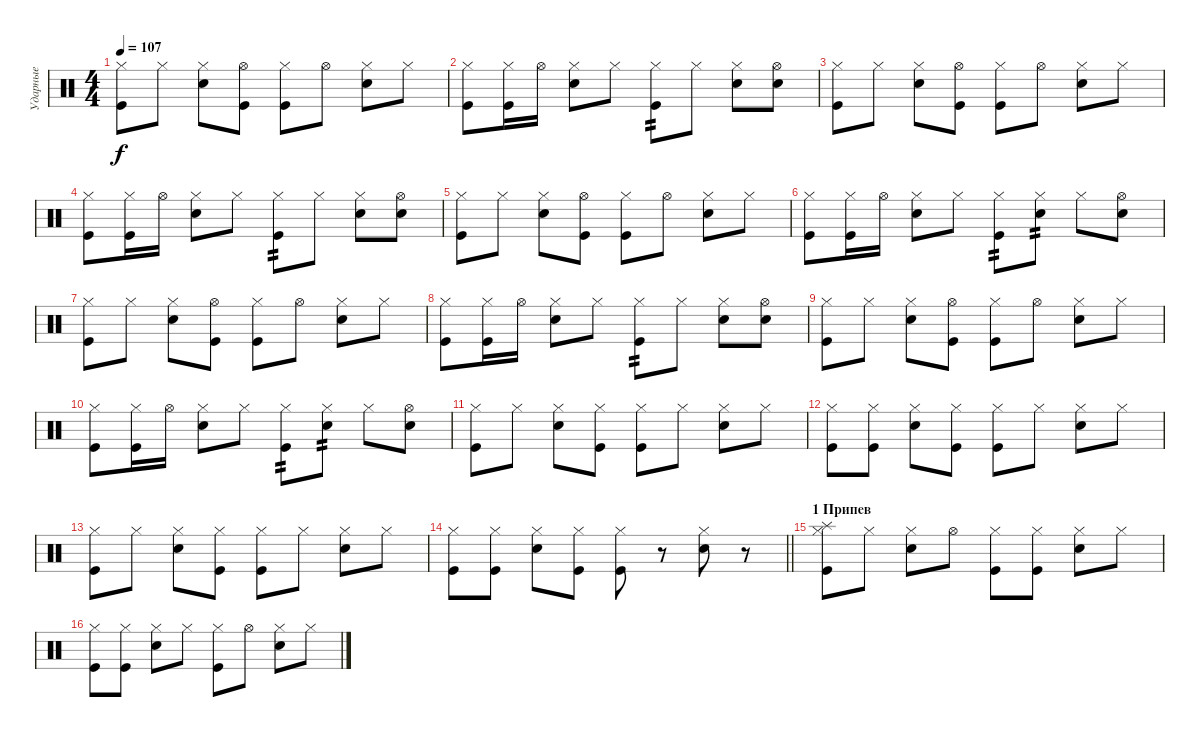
\track ("Ударные" "Ударные") {instrument percussion}
\staff {score}
\articulation defaults
\ts (4 4)
\tempo 107
\clef neutral
\ks c
("Hi-Hat (closed)" "Kick (hit)").8{dy f} "Hi-Hat (closed)".8 ("Hi-Hat (closed)" "Electric Snare (hit)").8 ("Hi-Hat (open)" "Kick (hit)").8 ("Hi-Hat (closed)" "Kick (hit)").8 "Hi-Hat (open)".8 ("Hi-Hat (closed)" "Electric Snare (hit)").8 "Hi-Hat (closed)".8 |
("Hi-Hat (closed)" "Kick (hit)").8 ("Hi-Hat (closed)" "Kick (hit)").16 "Hi-Hat (open)".16 ("Hi-Hat (closed)" "Electric Snare (hit)").8 "Hi-Hat (closed)".8 ("Hi-Hat (closed)" "Kick (hit)").8{tp 2} "Hi-Hat (closed)".8 ("Hi-Hat (closed)" "Electric Snare (hit)").8 ("Hi-Hat (open)" "Electric Snare (hit)").8 |
("Hi-Hat (closed)" "Kick (hit)").8 "Hi-Hat (closed)".8 ("Hi-Hat (closed)" "Electric Snare (hit)").8 ("Hi-Hat (open)" "Kick (hit)").8 ("Hi-Hat (closed)" "Kick (hit)").8 "Hi-Hat (open)".8 ("Hi-Hat (closed)" "Electric Snare (hit)").8 "Hi-Hat (closed)".8 |
("Hi-Hat (closed)" "Kick (hit)").8 ("Hi-Hat (closed)" "Kick (hit)").16 "Hi-Hat (open)".16 ("Hi-Hat (closed)" "Electric Snare (hit)").8 "Hi-Hat (closed)".8 ("Hi-Hat (closed)" "Kick (hit)").8{tp 2} "Hi-Hat (closed)".8 ("Hi-Hat (closed)" "Electric Snare (hit)").8 ("Hi-Hat (open)" "Electric Snare (hit)").8 |
("Hi-Hat (closed)" "Kick (hit)").8 "Hi-Hat (closed)".8 ("Hi-Hat (closed)" "Electric Snare (hit)").8 ("Hi-Hat (open)" "Kick (hit)").8 ("Hi-Hat (closed)" "Kick (hit)").8 "Hi-Hat (open)".8 ("Hi-Hat (closed)" "Electric Snare (hit)").8 "Hi-Hat (closed)".8 |
("Hi-Hat (closed)" "Kick (hit)").8 ("Hi-Hat (closed)" "Kick (hit)").16 "Hi-Hat (open)".16 ("Hi-Hat (closed)" "Electric Snare (hit)").8 "Hi-Hat (closed)".8 ("Hi-Hat (closed)" "Kick (hit)").8{tp 2} ("Hi-Hat (closed)" "Electric Snare (hit)").8{tp 2} "Hi-Hat (closed)".8 ("Hi-Hat (open)" "Electric Snare (hit)").8 |
("Hi-Hat (closed)" "Kick (hit)").8 "Hi-Hat (closed)".8 ("Hi-Hat (closed)" "Electric Snare (hit)").8 ("Hi-Hat (open)" "Kick (hit)").8 ("Hi-Hat (closed)" "Kick (hit)").8 "Hi-Hat (open)".8 ("Hi-Hat (closed)" "Electric Snare (hit)").8 "Hi-Hat (closed)".8 |
("Hi-Hat (closed)" "Kick (hit)").8 ("Hi-Hat (closed)" "Kick (hit)").16 "Hi-Hat (open)".16 ("Hi-Hat (closed)" "Electric Snare (hit)").8 "Hi-Hat (closed)".8 ("Hi-Hat (closed)" "Kick (hit)").8{tp 2} "Hi-Hat (closed)".8 ("Hi-Hat (closed)" "Electric Snare (hit)").8 ("Hi-Hat (open)" "Electric Snare (hit)").8 |
("Hi-Hat (closed)" "Kick (hit)").8 "Hi-Hat (closed)".8 ("Hi-Hat (closed)" "Electric Snare (hit)").8 ("Hi-Hat (open)" "Kick (hit)").8 ("Hi-Hat (closed)" "Kick (hit)").8 "Hi-Hat (open)".8 ("Hi-Hat (closed)" "Electric Snare (hit)").8 "Hi-Hat (closed)".8 |
("Hi-Hat (closed)" "Kick (hit)").8 ("Hi-Hat (closed)" "Kick (hit)").16 "Hi-Hat (open)".16 ("Hi-Hat (closed)" "Electric Snare (hit)").8 "Hi-Hat (closed)".8 ("Hi-Hat (closed)" "Kick (hit)").8{tp 2} ("Hi-Hat (closed)" "Electric Snare (hit)").8{tp 2} "Hi-Hat (closed)".8 ("Hi-Hat (open)" "Electric Snare (hit)").8 |
("Hi-Hat (closed)" "Kick (hit)").8 "Hi-Hat (closed)".8 ("Hi-Hat (closed)" "Electric Snare (hit)").8 ("Hi-Hat (closed)" "Kick (hit)").8 ("Hi-Hat (closed)" "Kick (hit)").8 "Hi-Hat (closed)".8 ("Hi-Hat (closed)" "Electric Snare (hit)").8 "Hi-Hat (closed)".8 |
("Hi-Hat (closed)" "Kick (hit)").8 ("Hi-Hat (closed)" "Kick (hit)").8 ("Hi-Hat (closed)" "Electric Snare (hit)").8 ("Hi-Hat (closed)" "Kick (hit)").8 ("Hi-Hat (closed)" "Kick (hit)").8 "Hi-Hat (closed)".8 ("Hi-Hat (closed)" "Electric Snare (hit)").8 "Hi-Hat (closed)".8 |
("Hi-Hat (closed)" "Kick (hit)").8 "Hi-Hat (closed)".8 ("Hi-Hat (closed)" "Electric Snare (hit)").8 ("Hi-Hat (closed)" "Kick (hit)").8 ("Hi-Hat (closed)" "Kick (hit)").8 "Hi-Hat (closed)".8 ("Hi-Hat (closed)" "Electric Snare (hit)").8 "Hi-Hat (closed)".8 |
\barLineRight lightlight
("Hi-Hat (closed)" "Kick (hit)").8 ("Hi-Hat (closed)" "Kick (hit)").8 ("Hi-Hat (closed)" "Electric Snare (hit)").8 ("Hi-Hat (closed)" "Kick (hit)").8 ("Hi-Hat (closed)" "Kick (hit)").8 r.8 ("Hi-Hat (closed)" "Electric Snare (hit)").8 r.8 |
\section ("" "1 Припев")
("Hi-Hat (closed)" "Splash (hit)" "Kick (hit)").8 "Hi-Hat (closed)".8 ("Hi-Hat (closed)" "Electric Snare (hit)").8 "Hi-Hat (open)".8 ("Hi-Hat (closed)" "Kick (hit)").8 ("Hi-Hat (closed)" "Kick (hit)").8 ("Hi-Hat (closed)" "Electric Snare (hit)").8 "Hi-Hat (closed)".8 |
("Hi-Hat (closed)" "Kick (hit)").8 ("Hi-Hat (closed)" "Kick (hit)").8 ("Hi-Hat (closed)" "Electric Snare (hit)").8 "Hi-Hat (closed)".8 ("Hi-Hat (closed)" "Kick (hit)").8 "Hi-Hat (open)".8 ("Hi-Hat (closed)" "Electric Snare (hit)").8 "Hi-Hat (closed)".8
